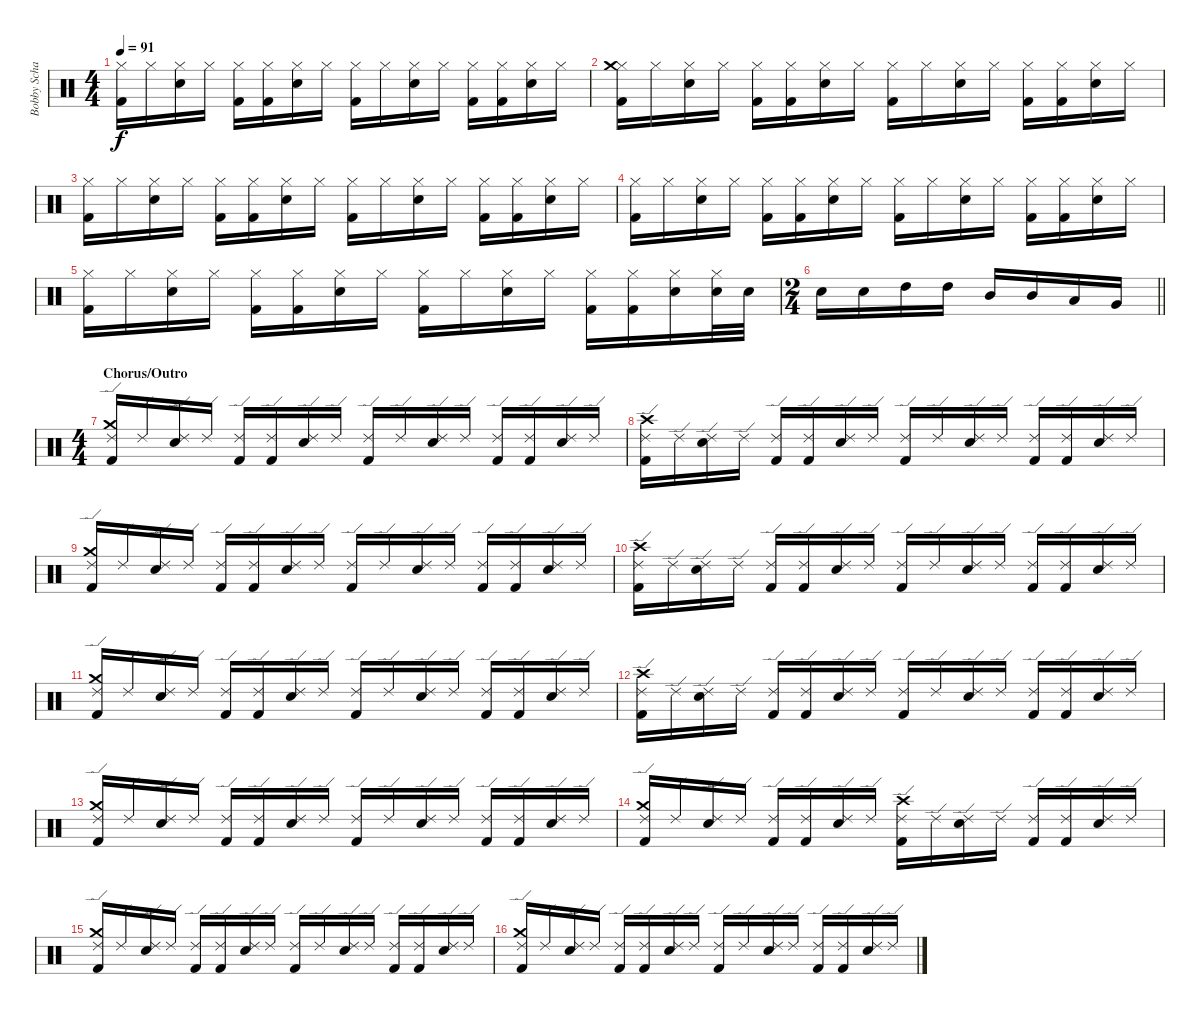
\track ("Bobby Schayer " "Bobby Scha") {instrument percussion}
\staff {score}
\articulation defaults
\ts (4 4)
\tempo 91
\clef neutral
\ks c
("Hi-Hat (closed)" "Kick (hit) 2").16{dy f} "Hi-Hat (closed)".16 ("Hi-Hat (closed)" "Snare (hit) 2").16 "Hi-Hat (closed)".16 ("Hi-Hat (closed)" "Kick (hit) 2").16 ("Hi-Hat (closed)" "Kick (hit) 2").16 ("Hi-Hat (closed)" "Snare (hit) 2").16 "Hi-Hat (closed)".16 ("Hi-Hat (closed)" "Kick (hit) 2").16 "Hi-Hat (closed)".16 ("Hi-Hat (closed)" "Snare (hit) 2").16 "Hi-Hat (closed)".16 ("Hi-Hat (closed)" "Kick (hit) 2").16 ("Hi-Hat (closed)" "Kick (hit) 2").16 ("Hi-Hat (closed)" "Snare (hit) 2").16 "Hi-Hat (closed)".16 |
("Hi-Hat (closed)" "Crash medium (hit)" "Kick (hit) 2").16 "Hi-Hat (closed)".16 ("Hi-Hat (closed)" "Snare (hit) 2").16 "Hi-Hat (closed)".16 ("Hi-Hat (closed)" "Kick (hit) 2").16 ("Hi-Hat (closed)" "Kick (hit) 2").16 ("Hi-Hat (closed)" "Snare (hit) 2").16 "Hi-Hat (closed)".16 ("Hi-Hat (closed)" "Kick (hit) 2").16 "Hi-Hat (closed)".16 ("Hi-Hat (closed)" "Snare (hit) 2").16 "Hi-Hat (closed)".16 ("Hi-Hat (closed)" "Kick (hit) 2").16 ("Hi-Hat (closed)" "Kick (hit) 2").16 ("Hi-Hat (closed)" "Snare (hit) 2").16 "Hi-Hat (closed)".16 |
("Hi-Hat (closed)" "Kick (hit) 2").16 "Hi-Hat (closed)".16 ("Hi-Hat (closed)" "Snare (hit) 2").16 "Hi-Hat (closed)".16 ("Hi-Hat (closed)" "Kick (hit) 2").16 ("Hi-Hat (closed)" "Kick (hit) 2").16 ("Hi-Hat (closed)" "Snare (hit) 2").16 "Hi-Hat (closed)".16 ("Hi-Hat (closed)" "Kick (hit) 2").16 "Hi-Hat (closed)".16 ("Hi-Hat (closed)" "Snare (hit) 2").16 "Hi-Hat (closed)".16 ("Hi-Hat (closed)" "Kick (hit) 2").16 ("Hi-Hat (closed)" "Kick (hit) 2").16 ("Hi-Hat (closed)" "Snare (hit) 2").16 "Hi-Hat (closed)".16 |
("Hi-Hat (closed)" "Kick (hit) 2").16 "Hi-Hat (closed)".16 ("Hi-Hat (closed)" "Snare (hit) 2").16 "Hi-Hat (closed)".16 ("Hi-Hat (closed)" "Kick (hit) 2").16 ("Hi-Hat (closed)" "Kick (hit) 2").16 ("Hi-Hat (closed)" "Snare (hit) 2").16 "Hi-Hat (closed)".16 ("Hi-Hat (closed)" "Kick (hit) 2").16 "Hi-Hat (closed)".16 ("Hi-Hat (closed)" "Snare (hit) 2").16 "Hi-Hat (closed)".16 ("Hi-Hat (closed)" "Kick (hit) 2").16 ("Hi-Hat (closed)" "Kick (hit) 2").16 ("Hi-Hat (closed)" "Snare (hit) 2").16 "Hi-Hat (closed)".16 |
("Hi-Hat (closed)" "Kick (hit) 2").16 "Hi-Hat (closed)".16 ("Hi-Hat (closed)" "Snare (hit) 2").16 "Hi-Hat (closed)".16 ("Hi-Hat (closed)" "Kick (hit) 2").16 ("Hi-Hat (closed)" "Kick (hit) 2").16 ("Hi-Hat (closed)" "Snare (hit) 2").16 "Hi-Hat (closed)".16 ("Hi-Hat (closed)" "Kick (hit) 2").16 "Hi-Hat (closed)".16 ("Hi-Hat (closed)" "Snare (hit) 2").16 "Hi-Hat (closed)".16 ("Hi-Hat (closed)" "Kick (hit) 2").16 ("Hi-Hat (closed)" "Kick (hit) 2").16 ("Hi-Hat (closed)" "Snare (hit) 2").16 ("Hi-Hat (closed)" "Snare (hit) 2").32 "Snare (hit) 2".32 |
\ts (2 4)
\barLineRight lightlight "Snare (hit) 2".16 "Snare (hit) 2".16 "High Tom (hit)".16 "High Tom (hit)".16 "Mid Tom (hit)".16 "Mid Tom (hit)".16 "Low Tom (hit)".16 "Very Low Tom (hit)".16
|
\ts (4 4)
\section ("" "Chorus/Outro")
("Ride (edge) 2" "Crash medium (hit)" "Kick (hit) 2").16 "Ride (edge) 2".16 ("Ride (edge) 2" "Snare (hit) 2").16 "Ride (edge) 2".16 ("Ride (edge) 2" "Kick (hit) 2").16 ("Ride (edge) 2" "Kick (hit) 2").16 ("Ride (edge) 2" "Snare (hit) 2").16 "Ride (edge) 2".16 ("Ride (edge) 2" "Kick (hit) 2").16 "Ride (edge) 2".16 ("Ride (edge) 2" "Snare (hit) 2").16 "Ride (edge) 2".16 ("Ride (edge) 2" "Kick (hit) 2").16 ("Ride (edge) 2" "Kick (hit) 2").16 ("Ride (edge) 2" "Snare (hit) 2").16 "Ride (edge) 2".16 |
("Ride (edge) 2" "Crash high (hit)" "Kick (hit) 2").16 "Ride (edge) 2".16 ("Ride (edge) 2" "Snare (hit) 2").16 "Ride (edge) 2".16 ("Ride (edge) 2" "Kick (hit) 2").16 ("Ride (edge) 2" "Kick (hit) 2").16 ("Ride (edge) 2" "Snare (hit) 2").16 "Ride (edge) 2".16 ("Ride (edge) 2" "Kick (hit) 2").16 "Ride (edge) 2".16 ("Ride (edge) 2" "Snare (hit) 2").16 "Ride (edge) 2".16 ("Ride (edge) 2" "Kick (hit) 2").16 ("Ride (edge) 2" "Kick (hit) 2").16 ("Ride (edge) 2" "Snare (hit) 2").16 "Ride (edge) 2".16 |
("Ride (edge) 2" "Crash medium (hit)" "Kick (hit) 2").16 "Ride (edge) 2".16 ("Ride (edge) 2" "Snare (hit) 2").16 "Ride (edge) 2".16 ("Ride (edge) 2" "Kick (hit) 2").16 ("Ride (edge) 2" "Kick (hit) 2").16 ("Ride (edge) 2" "Snare (hit) 2").16 "Ride (edge) 2".16 ("Ride (edge) 2" "Kick (hit) 2").16 "Ride (edge) 2".16 ("Ride (edge) 2" "Snare (hit) 2").16 "Ride (edge) 2".16 ("Ride (edge) 2" "Kick (hit) 2").16 ("Ride (edge) 2" "Kick (hit) 2").16 ("Ride (edge) 2" "Snare (hit) 2").16 "Ride (edge) 2".16 |
("Ride (edge) 2" "Crash high (hit)" "Kick (hit) 2").16 "Ride (edge) 2".16 ("Ride (edge) 2" "Snare (hit) 2").16 "Ride (edge) 2".16 ("Ride (edge) 2" "Kick (hit) 2").16 ("Ride (edge) 2" "Kick (hit) 2").16 ("Ride (edge) 2" "Snare (hit) 2").16 "Ride (edge) 2".16 ("Ride (edge) 2" "Kick (hit) 2").16 "Ride (edge) 2".16 ("Ride (edge) 2" "Snare (hit) 2").16 "Ride (edge) 2".16 ("Ride (edge) 2" "Kick (hit) 2").16 ("Ride (edge) 2" "Kick (hit) 2").16 ("Ride (edge) 2" "Snare (hit) 2").16 "Ride (edge) 2".16 |
("Ride (edge) 2" "Crash medium (hit)" "Kick (hit) 2").16 "Ride (edge) 2".16 ("Ride (edge) 2" "Snare (hit) 2").16 "Ride (edge) 2".16 ("Ride (edge) 2" "Kick (hit) 2").16 ("Ride (edge) 2" "Kick (hit) 2").16 ("Ride (edge) 2" "Snare (hit) 2").16 "Ride (edge) 2".16 ("Ride (edge) 2" "Kick (hit) 2").16 "Ride (edge) 2".16 ("Ride (edge) 2" "Snare (hit) 2").16 "Ride (edge) 2".16 ("Ride (edge) 2" "Kick (hit) 2").16 ("Ride (edge) 2" "Kick (hit) 2").16 ("Ride (edge) 2" "Snare (hit) 2").16 "Ride (edge) 2".16 |
("Ride (edge) 2" "Crash high (hit)" "Kick (hit) 2").16 "Ride (edge) 2".16 ("Ride (edge) 2" "Snare (hit) 2").16 "Ride (edge) 2".16 ("Ride (edge) 2" "Kick (hit) 2").16 ("Ride (edge) 2" "Kick (hit) 2").16 ("Ride (edge) 2" "Snare (hit) 2").16 "Ride (edge) 2".16 ("Ride (edge) 2" "Kick (hit) 2").16 "Ride (edge) 2".16 ("Ride (edge) 2" "Snare (hit) 2").16 "Ride (edge) 2".16 ("Ride (edge) 2" "Kick (hit) 2").16 ("Ride (edge) 2" "Kick (hit) 2").16 ("Ride (edge) 2" "Snare (hit) 2").16 "Ride (edge) 2".16 |
("Ride (edge) 2" "Crash medium (hit)" "Kick (hit) 2").16 "Ride (edge) 2".16 ("Ride (edge) 2" "Snare (hit) 2").16 "Ride (edge) 2".16 ("Ride (edge) 2" "Kick (hit) 2").16 ("Ride (edge) 2" "Kick (hit) 2").16 ("Ride (edge) 2" "Snare (hit) 2").16 "Ride (edge) 2".16 ("Ride (edge) 2" "Kick (hit) 2").16 "Ride (edge) 2".16 ("Ride (edge) 2" "Snare (hit) 2").16 "Ride (edge) 2".16 ("Ride (edge) 2" "Kick (hit) 2").16 ("Ride (edge) 2" "Kick (hit) 2").16 ("Ride (edge) 2" "Snare (hit) 2").16 "Ride (edge) 2".16 |
("Ride (edge) 2" "Crash medium (hit)" "Kick (hit) 2").16 "Ride (edge) 2".16 ("Ride (edge) 2" "Snare (hit) 2").16 "Ride (edge) 2".16 ("Ride (edge) 2" "Kick (hit) 2").16 ("Ride (edge) 2" "Kick (hit) 2").16 ("Ride (edge) 2" "Snare (hit) 2").16 "Ride (edge) 2".16 ("Ride (edge) 2" "Crash high (hit)" "Kick (hit) 2").16 "Ride (edge) 2".16 ("Ride (edge) 2" "Snare (hit) 2").16 "Ride (edge) 2".16 ("Ride (edge) 2" "Kick (hit) 2").16 ("Ride (edge) 2" "Kick (hit) 2").16 ("Ride (edge) 2" "Snare (hit) 2").16 "Ride (edge) 2".16 |
("Ride (edge) 2" "Crash medium (hit)" "Kick (hit) 2").16 "Ride (edge) 2".16 ("Ride (edge) 2" "Snare (hit) 2").16 "Ride (edge) 2".16 ("Ride (edge) 2" "Kick (hit) 2").16 ("Ride (edge) 2" "Kick (hit) 2").16 ("Ride (edge) 2" "Snare (hit) 2").16 "Ride (edge) 2".16 ("Ride (edge) 2" "Kick (hit) 2").16 "Ride (edge) 2".16 ("Ride (edge) 2" "Snare (hit) 2").16 "Ride (edge) 2".16 ("Ride (edge) 2" "Kick (hit) 2").16 ("Ride (edge) 2" "Kick (hit) 2").16 ("Ride (edge) 2" "Snare (hit) 2").16 "Ride (edge) 2".16 |
("Ride (edge) 2" "Crash medium (hit)" "Kick (hit) 2").16 "Ride (edge) 2".16 ("Ride (edge) 2" "Snare (hit) 2").16 "Ride (edge) 2".16 ("Ride (edge) 2" "Kick (hit) 2").16 ("Ride (edge) 2" "Kick (hit) 2").16 ("Ride (edge) 2" "Snare (hit) 2").16 "Ride (edge) 2".16 ("Ride (edge) 2" "Kick (hit) 2").16 "Ride (edge) 2".16 ("Ride (edge) 2" "Snare (hit) 2").16 "Ride (edge) 2".16 ("Ride (edge) 2" "Kick (hit) 2").16 ("Ride (edge) 2" "Kick (hit) 2").16 ("Ride (edge) 2" "Snare (hit) 2").16 "Ride (edge) 2".16
